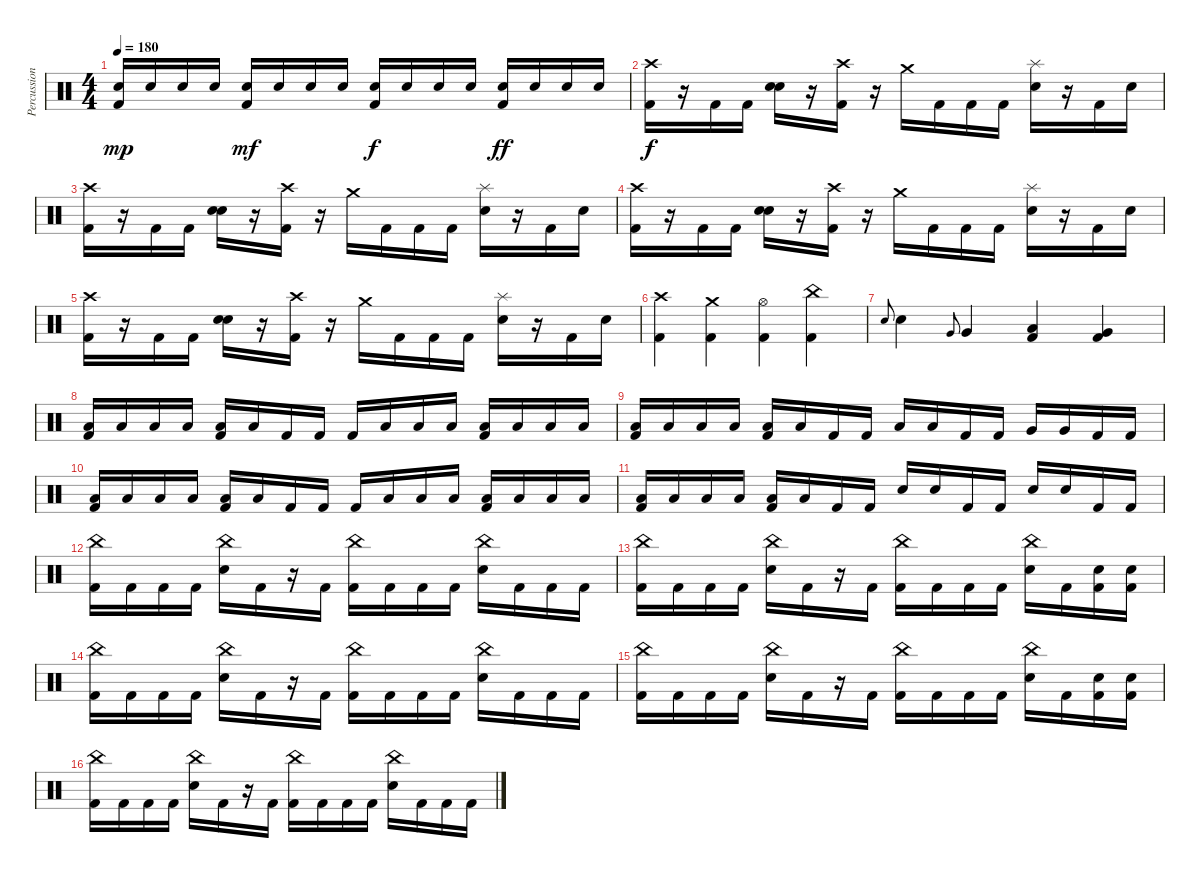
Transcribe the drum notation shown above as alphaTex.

\track ("Percussion" "Percussion") {instrument percussion}
\staff {score}
\articulation defaults
\ts (4 4)
\tempo 180
\clef neutral
\ks c
("Electric Snare (hit)" "Kick (hit) 2").16{dy mp} "Electric Snare (hit)".16 "Electric Snare (hit)".16 "Electric Snare (hit)".16 ("Electric Snare (hit)" "Kick (hit) 2").16{dy mf} "Electric Snare (hit)".16 "Electric Snare (hit)".16 "Electric Snare (hit)".16 ("Electric Snare (hit)" "Kick (hit) 2").16{dy f} "Electric Snare (hit)".16 "Electric Snare (hit)".16 "Electric Snare (hit)".16 ("Electric Snare (hit)" "Kick (hit) 2").16{dy ff} "Electric Snare (hit)".16 "Electric Snare (hit)".16 "Electric Snare (hit)".16 |
("Crash high (hit)" "Kick (hit) 2").16{dy f} r.16 "Kick (hit) 2".16 "Kick (hit) 2".16 ("Electric Snare (hit)" "Electric Snare (hit)").16 r.16 ("Crash high (hit)" "Kick (hit) 2").16 r.16 "Crash medium (hit)".16 "Kick (hit) 2".16 "Kick (hit) 2".16 "Kick (hit) 2".16 ("Splash (hit)" "Electric Snare (hit)").16 r.16 "Kick (hit) 2".16 "Electric Snare (hit)".16 |
("Crash high (hit)" "Kick (hit) 2").16 r.16 "Kick (hit) 2".16 "Kick (hit) 2".16 ("Electric Snare (hit)" "Electric Snare (hit)").16 r.16 ("Crash high (hit)" "Kick (hit) 2").16 r.16 "Crash medium (hit)".16 "Kick (hit) 2".16 "Kick (hit) 2".16 "Kick (hit) 2".16 ("Splash (hit)" "Electric Snare (hit)").16 r.16 "Kick (hit) 2".16 "Electric Snare (hit)".16 |
("Crash high (hit)" "Kick (hit) 2").16 r.16 "Kick (hit) 2".16 "Kick (hit) 2".16 ("Electric Snare (hit)" "Electric Snare (hit)").16 r.16 ("Crash high (hit)" "Kick (hit) 2").16 r.16 "Crash medium (hit)".16 "Kick (hit) 2".16 "Kick (hit) 2".16 "Kick (hit) 2".16 ("Splash (hit)" "Electric Snare (hit)").16 r.16 "Kick (hit) 2".16 "Electric Snare (hit)".16 |
("Crash high (hit)" "Kick (hit) 2").16 r.16 "Kick (hit) 2".16 "Kick (hit) 2".16 ("Electric Snare (hit)" "Electric Snare (hit)").16 r.16 ("Crash high (hit)" "Kick (hit) 2").16 r.16 "Crash medium (hit)".16 "Kick (hit) 2".16 "Kick (hit) 2".16 "Kick (hit) 2".16 ("Splash (hit)" "Electric Snare (hit)").16 r.16 "Kick (hit) 2".16 "Electric Snare (hit)".16 |
("Crash high (hit)" "Kick (hit) 2").4 ("Crash medium (hit)" "Kick (hit) 2").4 ("Hi-Hat (open)" "Kick (hit) 2").4 ("China (hit)" "Kick (hit) 2").4 |
"Electric Snare (hit)".8{gr onbeat} "Electric Snare (hit)".4 "Very Low Tom (hit)".8{gr onbeat} "Very Low Tom (hit)".4 ("Low Tom (hit)" "Kick (hit) 2").4 ("Very Low Tom (hit)" "Kick (hit) 2").4 |
("Low Floor Tom (hit)" "Kick (hit) 2").16 "Low Floor Tom (hit)".16 "Low Floor Tom (hit)".16 "Low Floor Tom (hit)".16 ("Low Floor Tom (hit)" "Kick (hit) 2").16 "Low Floor Tom (hit)".16 "Kick (hit) 2".16 "Kick (hit) 2".16 "Kick (hit) 2".16 "Low Floor Tom (hit)".16 "Low Floor Tom (hit)".16 "Low Floor Tom (hit)".16 ("Low Floor Tom (hit)" "Kick (hit) 2").16 "Low Floor Tom (hit)".16 "Low Floor Tom (hit)".16 "Low Floor Tom (hit)".16 |
("Low Floor Tom (hit)" "Kick (hit) 2").16 "Low Floor Tom (hit)".16 "Low Floor Tom (hit)".16 "Low Floor Tom (hit)".16 ("Low Floor Tom (hit)" "Kick (hit) 2").16 "Low Floor Tom (hit)".16 "Kick (hit) 2".16 "Kick (hit) 2".16 "Low Tom (hit)".16 "Low Tom (hit)".16 "Kick (hit) 2".16 "Kick (hit) 2".16 "Very Low Tom (hit)".16 "Very Low Tom (hit)".16 "Kick (hit) 2".16 "Kick (hit) 2".16 |
("Low Floor Tom (hit)" "Kick (hit) 2").16 "Low Floor Tom (hit)".16 "Low Floor Tom (hit)".16 "Low Floor Tom (hit)".16 ("Low Floor Tom (hit)" "Kick (hit) 2").16 "Low Floor Tom (hit)".16 "Kick (hit) 2".16 "Kick (hit) 2".16 "Kick (hit) 2".16 "Low Floor Tom (hit)".16 "Low Floor Tom (hit)".16 "Low Floor Tom (hit)".16 ("Low Floor Tom (hit)" "Kick (hit) 2").16 "Low Floor Tom (hit)".16 "Low Floor Tom (hit)".16 "Low Floor Tom (hit)".16 |
("Low Floor Tom (hit)" "Kick (hit) 2").16 "Low Floor Tom (hit)".16 "Low Floor Tom (hit)".16 "Low Floor Tom (hit)".16 ("Low Floor Tom (hit)" "Kick (hit) 2").16 "Low Floor Tom (hit)".16 "Kick (hit) 2".16 "Kick (hit) 2".16 "Electric Snare (hit)".16 "Electric Snare (hit)".16 "Kick (hit) 2".16 "Kick (hit) 2".16 "Electric Snare (hit)".16 "Electric Snare (hit)".16 "Kick (hit) 2".16 "Kick (hit) 2".16 |
("China (hit)" "Kick (hit) 2").16 "Kick (hit) 2".16 "Kick (hit) 2".16 "Kick (hit) 2".16 ("China (hit)" "Electric Snare (hit)").16 "Kick (hit) 2".16 r.16 "Kick (hit) 2".16 ("China (hit)" "Kick (hit) 2").16 "Kick (hit) 2".16 "Kick (hit) 2".16 "Kick (hit) 2".16 ("China (hit)" "Electric Snare (hit)").16 "Kick (hit) 2".16 "Kick (hit) 2".16 "Kick (hit) 2".16 |
("China (hit)" "Kick (hit) 2").16 "Kick (hit) 2".16 "Kick (hit) 2".16 "Kick (hit) 2".16 ("China (hit)" "Electric Snare (hit)").16 "Kick (hit) 2".16 r.16 "Kick (hit) 2".16 ("China (hit)" "Kick (hit) 2").16 "Kick (hit) 2".16 "Kick (hit) 2".16 "Kick (hit) 2".16 ("China (hit)" "Electric Snare (hit)").16 "Kick (hit) 2".16 ("Electric Snare (hit)" "Kick (hit) 2").16 ("Electric Snare (hit)" "Kick (hit) 2").16 |
("China (hit)" "Kick (hit) 2").16 "Kick (hit) 2".16 "Kick (hit) 2".16 "Kick (hit) 2".16 ("China (hit)" "Electric Snare (hit)").16 "Kick (hit) 2".16 r.16 "Kick (hit) 2".16 ("China (hit)" "Kick (hit) 2").16 "Kick (hit) 2".16 "Kick (hit) 2".16 "Kick (hit) 2".16 ("China (hit)" "Electric Snare (hit)").16 "Kick (hit) 2".16 "Kick (hit) 2".16 "Kick (hit) 2".16 |
("China (hit)" "Kick (hit) 2").16 "Kick (hit) 2".16 "Kick (hit) 2".16 "Kick (hit) 2".16 ("China (hit)" "Electric Snare (hit)").16 "Kick (hit) 2".16 r.16 "Kick (hit) 2".16 ("China (hit)" "Kick (hit) 2").16 "Kick (hit) 2".16 "Kick (hit) 2".16 "Kick (hit) 2".16 ("China (hit)" "Electric Snare (hit)").16 "Kick (hit) 2".16 ("Electric Snare (hit)" "Kick (hit) 2").16 ("Electric Snare (hit)" "Kick (hit) 2").16 |
("China (hit)" "Kick (hit) 2").16 "Kick (hit) 2".16 "Kick (hit) 2".16 "Kick (hit) 2".16 ("China (hit)" "Electric Snare (hit)").16 "Kick (hit) 2".16 r.16 "Kick (hit) 2".16 ("China (hit)" "Kick (hit) 2").16 "Kick (hit) 2".16 "Kick (hit) 2".16 "Kick (hit) 2".16 ("China (hit)" "Electric Snare (hit)").16 "Kick (hit) 2".16 "Kick (hit) 2".16 "Kick (hit) 2".16
